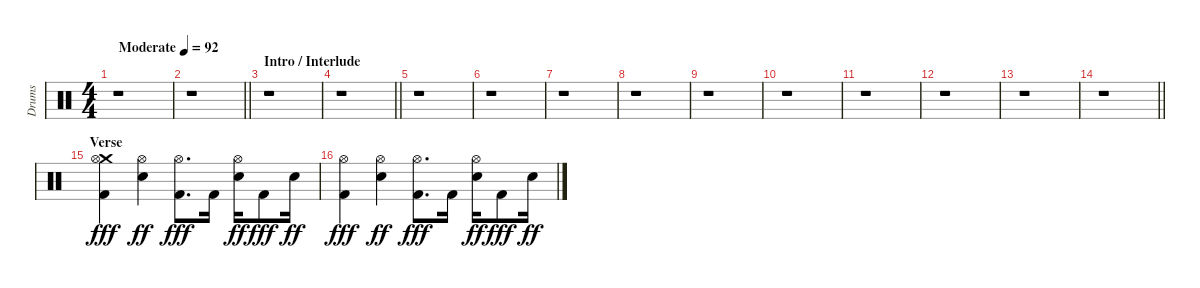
\track ("Drums" "Drums") {instrument percussion}
\staff {score}
\articulation defaults
\ts (4 4)
\tempo (92 "Moderate")
\clef neutral
\ks c
r.1{dy fff} |
\barLineRight lightlight
r.1 |
\section ("" "Intro / Interlude")
r.1 |
\barLineRight lightlight
r.1 |
r.1 |
r.1 |
r.1 |
r.1 |
r.1 |
r.1 |
r.1 |
r.1 |
r.1 |
\barLineRight lightlight
r.1 |
\section ("" "Verse")
("Crash medium (hit)" "Hi-Hat (open)" "Kick (hit) 2").4 ("Hi-Hat (open)" "Electric Snare (hit)").4{dy ff} ("Hi-Hat (open)" "Kick (hit) 2").8{d dy fff} "Kick (hit) 2".16 ("Hi-Hat (open)" "Electric Snare (hit)").16{dy ff} "Kick (hit) 2".8{dy fff} "Electric Snare (hit)".16{dy ff} |
("Hi-Hat (open)" "Kick (hit) 2").4{dy fff} ("Hi-Hat (open)" "Electric Snare (hit)").4{dy ff} ("Hi-Hat (open)" "Kick (hit) 2").8{d dy fff} "Kick (hit) 2".16 ("Hi-Hat (open)" "Electric Snare (hit)").16{dy ff} "Kick (hit) 2".8{dy fff} "Electric Snare (hit)".16{dy ff}
